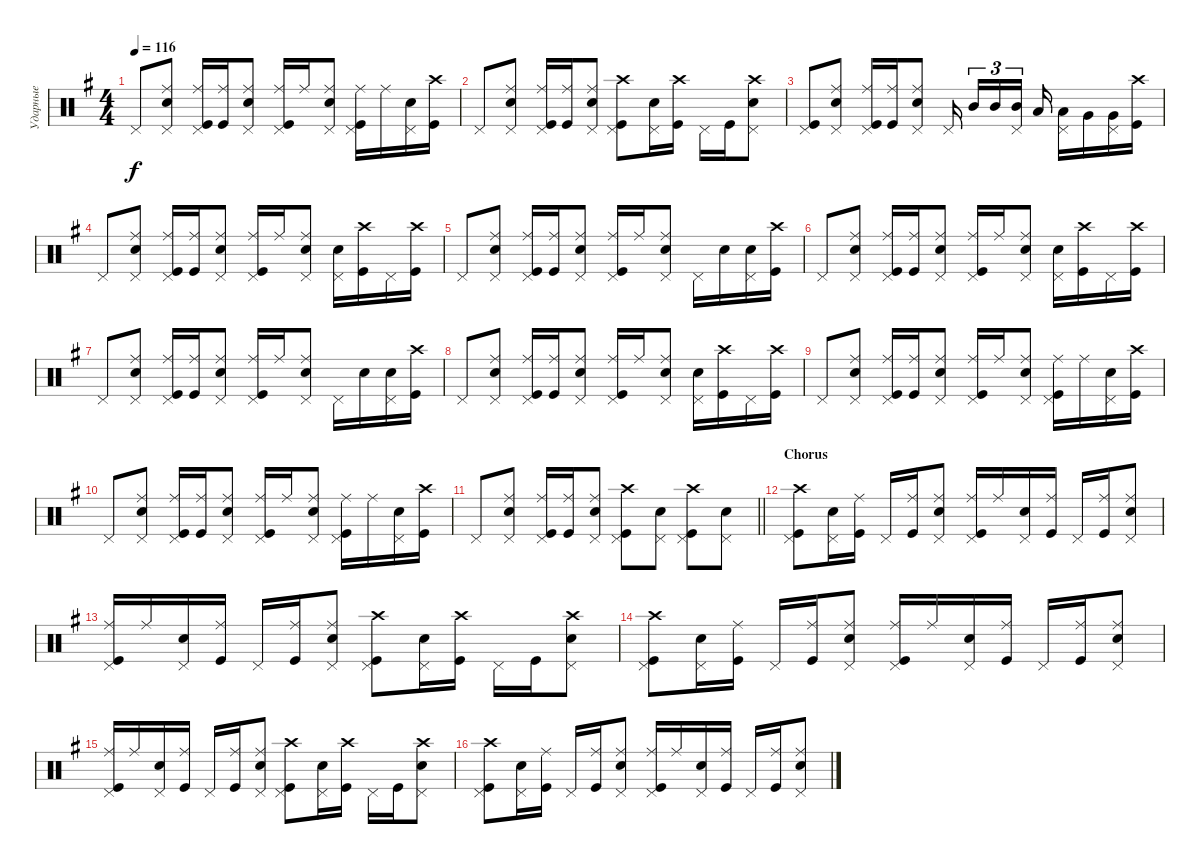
\track ("Ударные" "Ударные") {instrument percussion}
\staff {score}
\articulation defaults
\ts (4 4)
\tempo 116
\clef neutral
\ks eminor "Pedal Hi-Hat (hit)".8{dy f}
("Snare (hit) 2" "Pedal Hi-Hat (hit)" "Ride (middle)").8 ("Kick (hit)" "Pedal Hi-Hat (hit)" "Ride (middle)").16 ("Kick (hit)" "Ride (middle)").16 ("Snare (hit) 2" "Pedal Hi-Hat (hit)" "Ride (middle)").8 ("Kick (hit)" "Pedal Hi-Hat (hit)" "Ride (middle)").16 "Ride (middle)".16 ("Snare (hit) 2" "Pedal Hi-Hat (hit)" "Ride (middle)").8 ("Kick (hit)" "Ride (middle)" "Pedal Hi-Hat (hit)").16 "Ride (middle)".16 ("Snare (hit) 2" "Pedal Hi-Hat (hit)").16 ("Kick (hit)" "Crash high (hit)").16 |
"Pedal Hi-Hat (hit)".8 ("Snare (hit) 2" "Ride (middle)" "Pedal Hi-Hat (hit)").8 ("Kick (hit)" "Ride (middle)" "Pedal Hi-Hat (hit)").16 ("Kick (hit)" "Ride (middle)").16 ("Snare (hit) 2" "Ride (middle)" "Pedal Hi-Hat (hit)").8 ("Kick (hit)" "Crash high (hit)" "Pedal Hi-Hat (hit)").8 ("Snare (hit) 2" "Pedal Hi-Hat (hit)").16 ("Kick (hit)" "Crash high (hit)").16 "Pedal Hi-Hat (hit)".16 "Kick (hit)".16 ("Snare (hit) 2" "Crash high (hit)" "Pedal Hi-Hat (hit)").8 |
("Kick (hit)" "Pedal Hi-Hat (hit)").8 ("Snare (hit) 2" "Ride (middle)" "Pedal Hi-Hat (hit)").8 ("Kick (hit)" "Ride (middle)" "Pedal Hi-Hat (hit)").16 ("Kick (hit)" "Ride (middle)").16 ("Snare (hit) 2" "Ride (middle)" "Pedal Hi-Hat (hit)").8 "Pedal Hi-Hat (hit)".16{beam splitsecondary} "Mid Tom (hit)".16{tu (3 2)} "Mid Tom (hit)".16{tu (3 2)} ("Mid Tom (hit)" "Pedal Hi-Hat (hit)").16{tu (3 2) beam splitsecondary} "Low Tom (hit)".16 ("Low Tom (hit)" "Pedal Hi-Hat (hit)").16 "Very Low Tom (hit)".16 ("Pedal Hi-Hat (hit)" "Very Low Tom (hit)").16 ("Kick (hit)" "Crash high (hit)").16 |
"Pedal Hi-Hat (hit)".8 ("Snare (hit) 2" "Pedal Hi-Hat (hit)" "Ride (middle)").8 ("Kick (hit)" "Pedal Hi-Hat (hit)" "Ride (middle)").16 ("Kick (hit)" "Ride (middle)").16 ("Snare (hit) 2" "Pedal Hi-Hat (hit)" "Ride (middle)").8 ("Pedal Hi-Hat (hit)" "Kick (hit)" "Ride (middle)").16 "Ride (middle)".16 ("Snare (hit) 2" "Pedal Hi-Hat (hit)" "Ride (middle)").8 ("Snare (hit) 2" "Pedal Hi-Hat (hit)").16 ("Kick (hit)" "Crash high (hit)").16 "Pedal Hi-Hat (hit)".16 ("Kick (hit)" "Crash high (hit)").16 |
"Pedal Hi-Hat (hit)".8 ("Snare (hit) 2" "Pedal Hi-Hat (hit)" "Ride (middle)").8 ("Kick (hit)" "Pedal Hi-Hat (hit)" "Ride (middle)").16 ("Kick (hit)" "Ride (middle)").16 ("Snare (hit) 2" "Pedal Hi-Hat (hit)" "Ride (middle)").8 ("Pedal Hi-Hat (hit)" "Kick (hit)" "Ride (middle)").16 "Ride (middle)".16 ("Snare (hit) 2" "Pedal Hi-Hat (hit)" "Ride (middle)").8 "Pedal Hi-Hat (hit)".16 "Snare (hit) 2".16 ("Snare (hit) 2" "Pedal Hi-Hat (hit)").16 ("Kick (hit)" "Crash high (hit)").16 |
"Pedal Hi-Hat (hit)".8 ("Snare (hit) 2" "Pedal Hi-Hat (hit)" "Ride (middle)").8 ("Kick (hit)" "Pedal Hi-Hat (hit)" "Ride (middle)").16 ("Kick (hit)" "Ride (middle)").16 ("Snare (hit) 2" "Pedal Hi-Hat (hit)" "Ride (middle)").8 ("Pedal Hi-Hat (hit)" "Kick (hit)" "Ride (middle)").16 "Ride (middle)".16 ("Snare (hit) 2" "Pedal Hi-Hat (hit)" "Ride (middle)").8 ("Snare (hit) 2" "Pedal Hi-Hat (hit)").16 ("Kick (hit)" "Crash high (hit)").16 "Pedal Hi-Hat (hit)".16 ("Kick (hit)" "Crash high (hit)").16 |
"Pedal Hi-Hat (hit)".8 ("Snare (hit) 2" "Pedal Hi-Hat (hit)" "Ride (middle)").8 ("Kick (hit)" "Pedal Hi-Hat (hit)" "Ride (middle)").16 ("Kick (hit)" "Ride (middle)").16 ("Snare (hit) 2" "Pedal Hi-Hat (hit)" "Ride (middle)").8 ("Pedal Hi-Hat (hit)" "Kick (hit)" "Ride (middle)").16 "Ride (middle)".16 ("Snare (hit) 2" "Pedal Hi-Hat (hit)" "Ride (middle)").8 "Pedal Hi-Hat (hit)".16 "Snare (hit) 2".16 ("Snare (hit) 2" "Pedal Hi-Hat (hit)").16 ("Kick (hit)" "Crash high (hit)").16 |
"Pedal Hi-Hat (hit)".8 ("Snare (hit) 2" "Pedal Hi-Hat (hit)" "Ride (middle)").8 ("Kick (hit)" "Pedal Hi-Hat (hit)" "Ride (middle)").16 ("Kick (hit)" "Ride (middle)").16 ("Snare (hit) 2" "Pedal Hi-Hat (hit)" "Ride (middle)").8 ("Pedal Hi-Hat (hit)" "Kick (hit)" "Ride (middle)").16 "Ride (middle)".16 ("Snare (hit) 2" "Pedal Hi-Hat (hit)" "Ride (middle)").8 ("Snare (hit) 2" "Pedal Hi-Hat (hit)").16 ("Kick (hit)" "Crash high (hit)").16 "Pedal Hi-Hat (hit)".16 ("Kick (hit)" "Crash high (hit)").16 |
"Pedal Hi-Hat (hit)".8 ("Snare (hit) 2" "Pedal Hi-Hat (hit)" "Ride (middle)").8 ("Kick (hit)" "Pedal Hi-Hat (hit)" "Ride (middle)").16 ("Kick (hit)" "Ride (middle)").16 ("Snare (hit) 2" "Pedal Hi-Hat (hit)" "Ride (middle)").8 ("Kick (hit)" "Pedal Hi-Hat (hit)" "Ride (middle)").16 "Ride (middle)".16 ("Snare (hit) 2" "Pedal Hi-Hat (hit)" "Ride (middle)").8 ("Kick (hit)" "Ride (middle)" "Pedal Hi-Hat (hit)").16 "Ride (middle)".16 ("Snare (hit) 2" "Pedal Hi-Hat (hit)").16 ("Kick (hit)" "Crash high (hit)").16 |
"Pedal Hi-Hat (hit)".8 ("Snare (hit) 2" "Pedal Hi-Hat (hit)" "Ride (middle)").8 ("Kick (hit)" "Pedal Hi-Hat (hit)" "Ride (middle)").16 ("Kick (hit)" "Ride (middle)").16 ("Snare (hit) 2" "Pedal Hi-Hat (hit)" "Ride (middle)").8 ("Kick (hit)" "Pedal Hi-Hat (hit)" "Ride (middle)").16 "Ride (middle)".16 ("Snare (hit) 2" "Pedal Hi-Hat (hit)" "Ride (middle)").8 ("Kick (hit)" "Ride (middle)" "Pedal Hi-Hat (hit)").16 "Ride (middle)".16 ("Snare (hit) 2" "Pedal Hi-Hat (hit)").16 ("Kick (hit)" "Crash high (hit)").16 |
\barLineRight lightlight "Pedal Hi-Hat (hit)".8
("Snare (hit) 2" "Pedal Hi-Hat (hit)" "Ride (middle)").8 ("Kick (hit)" "Pedal Hi-Hat (hit)" "Ride (middle)").16 ("Kick (hit)" "Ride (middle)").16 ("Snare (hit) 2" "Pedal Hi-Hat (hit)" "Ride (middle)").8 ("Kick (hit)" "Crash high (hit)" "Pedal Hi-Hat (hit)").8 ("Snare (hit) 2" "Pedal Hi-Hat (hit)").8 ("Kick (hit)" "Crash high (hit)" "Pedal Hi-Hat (hit)").8 ("Snare (hit) 2" "Pedal Hi-Hat (hit)").8 |
\section ("" "Chorus")
("Kick (hit)" "Crash high (hit)" "Pedal Hi-Hat (hit)").8 ("Snare (hit) 2" "Pedal Hi-Hat (hit)").16 ("Kick (hit)" "Ride (middle)").16 "Pedal Hi-Hat (hit)".16 ("Ride (middle)" "Kick (hit)").16 ("Snare (hit) 2" "Ride (middle)" "Pedal Hi-Hat (hit)").8 ("Kick (hit)" "Ride (middle)" "Pedal Hi-Hat (hit)").16 "Ride (middle)".16 ("Snare (hit) 2" "Pedal Hi-Hat (hit)").16 ("Kick (hit)" "Ride (middle)").16 "Pedal Hi-Hat (hit)".16 ("Ride (middle)" "Kick (hit)").16 ("Ride (middle)" "Snare (hit) 2" "Pedal Hi-Hat (hit)").8 |
("Kick (hit)" "Ride (middle)" "Pedal Hi-Hat (hit)").16 "Ride (middle)".16 ("Snare (hit) 2" "Pedal Hi-Hat (hit)").16 ("Kick (hit)" "Ride (middle)").16 "Pedal Hi-Hat (hit)".16 ("Ride (middle)" "Kick (hit)").16 ("Snare (hit) 2" "Ride (middle)" "Pedal Hi-Hat (hit)").8 ("Kick (hit)" "Crash high (hit)" "Pedal Hi-Hat (hit)").8 ("Snare (hit) 2" "Pedal Hi-Hat (hit)").16 ("Kick (hit)" "Crash high (hit)").16 "Pedal Hi-Hat (hit)".16 "Kick (hit)".16 ("Crash high (hit)" "Snare (hit) 2" "Pedal Hi-Hat (hit)").8 |
("Kick (hit)" "Crash high (hit)" "Pedal Hi-Hat (hit)").8 ("Snare (hit) 2" "Pedal Hi-Hat (hit)").16 ("Kick (hit)" "Ride (middle)").16 "Pedal Hi-Hat (hit)".16 ("Ride (middle)" "Kick (hit)").16 ("Snare (hit) 2" "Ride (middle)" "Pedal Hi-Hat (hit)").8 ("Kick (hit)" "Ride (middle)" "Pedal Hi-Hat (hit)").16 "Ride (middle)".16 ("Snare (hit) 2" "Pedal Hi-Hat (hit)").16 ("Kick (hit)" "Ride (middle)").16 "Pedal Hi-Hat (hit)".16 ("Ride (middle)" "Kick (hit)").16 ("Ride (middle)" "Snare (hit) 2" "Pedal Hi-Hat (hit)").8 |
("Kick (hit)" "Ride (middle)" "Pedal Hi-Hat (hit)").16 "Ride (middle)".16 ("Snare (hit) 2" "Pedal Hi-Hat (hit)").16 ("Kick (hit)" "Ride (middle)").16 "Pedal Hi-Hat (hit)".16 ("Ride (middle)" "Kick (hit)").16 ("Snare (hit) 2" "Ride (middle)" "Pedal Hi-Hat (hit)").8 ("Kick (hit)" "Crash high (hit)" "Pedal Hi-Hat (hit)").8 ("Snare (hit) 2" "Pedal Hi-Hat (hit)").16 ("Kick (hit)" "Crash high (hit)").16 "Pedal Hi-Hat (hit)".16 "Kick (hit)".16 ("Crash high (hit)" "Snare (hit) 2" "Pedal Hi-Hat (hit)").8 |
("Kick (hit)" "Crash high (hit)" "Pedal Hi-Hat (hit)").8 ("Snare (hit) 2" "Pedal Hi-Hat (hit)").16 ("Kick (hit)" "Ride (middle)").16 "Pedal Hi-Hat (hit)".16 ("Ride (middle)" "Kick (hit)").16 ("Snare (hit) 2" "Ride (middle)" "Pedal Hi-Hat (hit)").8 ("Kick (hit)" "Ride (middle)" "Pedal Hi-Hat (hit)").16 "Ride (middle)".16 ("Snare (hit) 2" "Pedal Hi-Hat (hit)").16 ("Kick (hit)" "Ride (middle)").16 "Pedal Hi-Hat (hit)".16 ("Ride (middle)" "Kick (hit)").16 ("Ride (middle)" "Snare (hit) 2" "Pedal Hi-Hat (hit)").8
